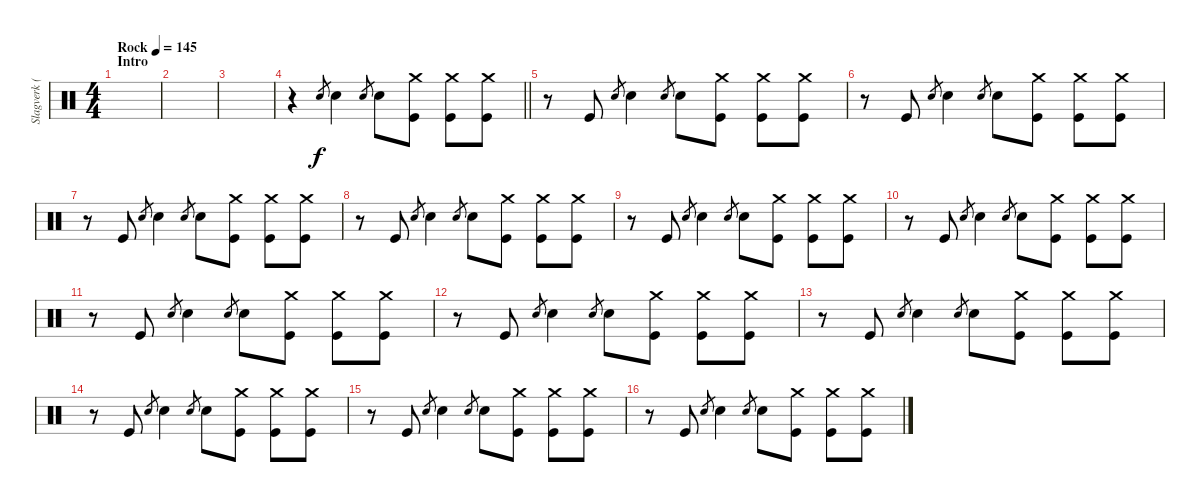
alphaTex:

\track ("Slagverk (Jan)" "Slagverk (") {instrument percussion}
\staff {score}
\articulation defaults
\ts (4 4)
\section ("" "Intro")
\tempo (145 "Rock")
\clef neutral
\ks c
|
|
|
\barLineRight lightlight
r.4 "Snare (hit) 2".8{gr} "Snare (hit) 2".4 "Snare (hit) 2".8{gr} "Snare (hit) 2".8 ("Crash medium (hit)" "Kick (hit)").8 ("Crash medium (hit)" "Kick (hit)").8 ("Crash medium (hit)" "Kick (hit)").8 |
r.8 "Kick (hit)".8 "Snare (hit) 2".8{gr} "Snare (hit) 2".4 "Snare (hit) 2".8{gr} "Snare (hit) 2".8 ("Crash medium (hit)" "Kick (hit)").8 ("Crash medium (hit)" "Kick (hit)").8 ("Crash medium (hit)" "Kick (hit)").8 |
r.8 "Kick (hit)".8 "Snare (hit) 2".8{gr} "Snare (hit) 2".4 "Snare (hit) 2".8{gr} "Snare (hit) 2".8 ("Crash medium (hit)" "Kick (hit)").8 ("Crash medium (hit)" "Kick (hit)").8 ("Crash medium (hit)" "Kick (hit)").8 |
r.8 "Kick (hit)".8 "Snare (hit) 2".8{gr} "Snare (hit) 2".4 "Snare (hit) 2".8{gr} "Snare (hit) 2".8 ("Crash medium (hit)" "Kick (hit)").8 ("Crash medium (hit)" "Kick (hit)").8 ("Crash medium (hit)" "Kick (hit)").8 |
r.8 "Kick (hit)".8 "Snare (hit) 2".8{gr} "Snare (hit) 2".4 "Snare (hit) 2".8{gr} "Snare (hit) 2".8 ("Crash medium (hit)" "Kick (hit)").8 ("Crash medium (hit)" "Kick (hit)").8 ("Crash medium (hit)" "Kick (hit)").8 |
r.8 "Kick (hit)".8 "Snare (hit) 2".8{gr} "Snare (hit) 2".4 "Snare (hit) 2".8{gr} "Snare (hit) 2".8 ("Crash medium (hit)" "Kick (hit)").8 ("Crash medium (hit)" "Kick (hit)").8 ("Crash medium (hit)" "Kick (hit)").8 |
r.8 "Kick (hit)".8 "Snare (hit) 2".8{gr} "Snare (hit) 2".4 "Snare (hit) 2".8{gr} "Snare (hit) 2".8 ("Crash medium (hit)" "Kick (hit)").8 ("Crash medium (hit)" "Kick (hit)").8 ("Crash medium (hit)" "Kick (hit)").8 |
r.8 "Kick (hit)".8 "Snare (hit) 2".8{gr} "Snare (hit) 2".4 "Snare (hit) 2".8{gr} "Snare (hit) 2".8 ("Crash medium (hit)" "Kick (hit)").8 ("Crash medium (hit)" "Kick (hit)").8 ("Crash medium (hit)" "Kick (hit)").8 |
r.8 "Kick (hit)".8 "Snare (hit) 2".8{gr} "Snare (hit) 2".4 "Snare (hit) 2".8{gr} "Snare (hit) 2".8 ("Crash medium (hit)" "Kick (hit)").8 ("Crash medium (hit)" "Kick (hit)").8 ("Crash medium (hit)" "Kick (hit)").8 |
r.8 "Kick (hit)".8 "Snare (hit) 2".8{gr} "Snare (hit) 2".4 "Snare (hit) 2".8{gr} "Snare (hit) 2".8 ("Crash medium (hit)" "Kick (hit)").8 ("Crash medium (hit)" "Kick (hit)").8 ("Crash medium (hit)" "Kick (hit)").8 |
r.8 "Kick (hit)".8 "Snare (hit) 2".8{gr} "Snare (hit) 2".4 "Snare (hit) 2".8{gr} "Snare (hit) 2".8 ("Crash medium (hit)" "Kick (hit)").8 ("Crash medium (hit)" "Kick (hit)").8 ("Crash medium (hit)" "Kick (hit)").8 |
r.8 "Kick (hit)".8 "Snare (hit) 2".8{gr} "Snare (hit) 2".4 "Snare (hit) 2".8{gr} "Snare (hit) 2".8 ("Crash medium (hit)" "Kick (hit)").8 ("Crash medium (hit)" "Kick (hit)").8 ("Crash medium (hit)" "Kick (hit)").8 |
r.8 "Kick (hit)".8 "Snare (hit) 2".8{gr} "Snare (hit) 2".4 "Snare (hit) 2".8{gr} "Snare (hit) 2".8 ("Crash medium (hit)" "Kick (hit)").8 ("Crash medium (hit)" "Kick (hit)").8 ("Crash medium (hit)" "Kick (hit)").8
